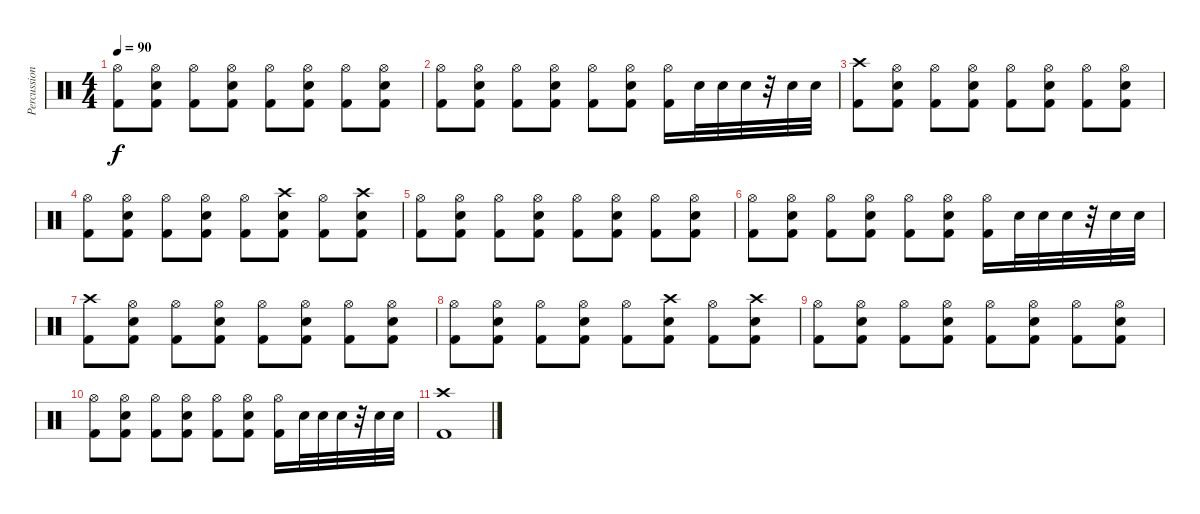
\track ("Percussion" "Percussion") {instrument percussion}
\staff {score}
\articulation defaults
\ts (4 4)
\tempo 90
\clef neutral
\ks c
("Hi-Hat (open)" "Kick (hit) 2").8{dy f} ("Hi-Hat (open)" "Electric Snare (hit)" "Kick (hit) 2").8 ("Hi-Hat (open)" "Kick (hit) 2").8 ("Hi-Hat (open)" "Electric Snare (hit)" "Kick (hit) 2").8 ("Hi-Hat (open)" "Kick (hit) 2").8 ("Hi-Hat (open)" "Electric Snare (hit)" "Kick (hit) 2").8 ("Hi-Hat (open)" "Kick (hit) 2").8 ("Hi-Hat (open)" "Electric Snare (hit)" "Kick (hit) 2").8 |
("Hi-Hat (open)" "Kick (hit) 2").8 ("Hi-Hat (open)" "Electric Snare (hit)" "Kick (hit) 2").8 ("Hi-Hat (open)" "Kick (hit) 2").8 ("Hi-Hat (open)" "Electric Snare (hit)" "Kick (hit) 2").8 ("Hi-Hat (open)" "Kick (hit) 2").8 ("Hi-Hat (open)" "Electric Snare (hit)" "Kick (hit) 2").8 ("Hi-Hat (open)" "Kick (hit) 2").16 "Electric Snare (hit)".32 "Electric Snare (hit)".32 "Electric Snare (hit)".32 r.32 "Electric Snare (hit)".32 "Electric Snare (hit)".32 |
("Crash high (hit)" "Kick (hit) 2").8 ("Hi-Hat (open)" "Electric Snare (hit)" "Kick (hit) 2").8 ("Hi-Hat (open)" "Kick (hit) 2").8 ("Hi-Hat (open)" "Electric Snare (hit)" "Kick (hit) 2").8 ("Hi-Hat (open)" "Kick (hit) 2").8 ("Hi-Hat (open)" "Electric Snare (hit)" "Kick (hit) 2").8 ("Hi-Hat (open)" "Kick (hit) 2").8 ("Hi-Hat (open)" "Electric Snare (hit)" "Kick (hit) 2").8 |
("Hi-Hat (open)" "Kick (hit) 2").8 ("Hi-Hat (open)" "Electric Snare (hit)" "Kick (hit) 2").8 ("Hi-Hat (open)" "Kick (hit) 2").8 ("Hi-Hat (open)" "Electric Snare (hit)" "Kick (hit) 2").8 ("Hi-Hat (open)" "Kick (hit) 2").8 ("Crash high (hit)" "Electric Snare (hit)" "Kick (hit) 2").8 ("Hi-Hat (open)" "Kick (hit) 2").8 ("Crash high (hit)" "Electric Snare (hit)" "Kick (hit) 2").8 |
("Hi-Hat (open)" "Kick (hit) 2").8 ("Hi-Hat (open)" "Electric Snare (hit)" "Kick (hit) 2").8 ("Hi-Hat (open)" "Kick (hit) 2").8 ("Hi-Hat (open)" "Electric Snare (hit)" "Kick (hit) 2").8 ("Hi-Hat (open)" "Kick (hit) 2").8 ("Hi-Hat (open)" "Electric Snare (hit)" "Kick (hit) 2").8 ("Hi-Hat (open)" "Kick (hit) 2").8 ("Hi-Hat (open)" "Electric Snare (hit)" "Kick (hit) 2").8 |
("Hi-Hat (open)" "Kick (hit) 2").8 ("Hi-Hat (open)" "Electric Snare (hit)" "Kick (hit) 2").8 ("Hi-Hat (open)" "Kick (hit) 2").8 ("Hi-Hat (open)" "Electric Snare (hit)" "Kick (hit) 2").8 ("Hi-Hat (open)" "Kick (hit) 2").8 ("Hi-Hat (open)" "Electric Snare (hit)" "Kick (hit) 2").8 ("Hi-Hat (open)" "Kick (hit) 2").16 "Electric Snare (hit)".32 "Electric Snare (hit)".32 "Electric Snare (hit)".32 r.32 "Electric Snare (hit)".32 "Electric Snare (hit)".32 |
("Crash high (hit)" "Kick (hit) 2").8 ("Hi-Hat (open)" "Electric Snare (hit)" "Kick (hit) 2").8 ("Hi-Hat (open)" "Kick (hit) 2").8 ("Hi-Hat (open)" "Electric Snare (hit)" "Kick (hit) 2").8 ("Hi-Hat (open)" "Kick (hit) 2").8 ("Hi-Hat (open)" "Electric Snare (hit)" "Kick (hit) 2").8 ("Hi-Hat (open)" "Kick (hit) 2").8 ("Hi-Hat (open)" "Electric Snare (hit)" "Kick (hit) 2").8 |
("Hi-Hat (open)" "Kick (hit) 2").8 ("Hi-Hat (open)" "Electric Snare (hit)" "Kick (hit) 2").8 ("Hi-Hat (open)" "Kick (hit) 2").8 ("Hi-Hat (open)" "Electric Snare (hit)" "Kick (hit) 2").8 ("Hi-Hat (open)" "Kick (hit) 2").8 ("Crash high (hit)" "Electric Snare (hit)" "Kick (hit) 2").8 ("Hi-Hat (open)" "Kick (hit) 2").8 ("Crash high (hit)" "Electric Snare (hit)" "Kick (hit) 2").8 |
("Hi-Hat (open)" "Kick (hit) 2").8 ("Hi-Hat (open)" "Electric Snare (hit)" "Kick (hit) 2").8 ("Hi-Hat (open)" "Kick (hit) 2").8 ("Hi-Hat (open)" "Electric Snare (hit)" "Kick (hit) 2").8 ("Hi-Hat (open)" "Kick (hit) 2").8 ("Hi-Hat (open)" "Electric Snare (hit)" "Kick (hit) 2").8 ("Hi-Hat (open)" "Kick (hit) 2").8 ("Hi-Hat (open)" "Electric Snare (hit)" "Kick (hit) 2").8 |
("Hi-Hat (open)" "Kick (hit) 2").8 ("Hi-Hat (open)" "Electric Snare (hit)" "Kick (hit) 2").8 ("Hi-Hat (open)" "Kick (hit) 2").8 ("Hi-Hat (open)" "Electric Snare (hit)" "Kick (hit) 2").8 ("Hi-Hat (open)" "Kick (hit) 2").8 ("Hi-Hat (open)" "Electric Snare (hit)" "Kick (hit) 2").8 ("Hi-Hat (open)" "Kick (hit) 2").16 "Electric Snare (hit)".32 "Electric Snare (hit)".32 "Electric Snare (hit)".32 r.32 "Electric Snare (hit)".32 "Electric Snare (hit)".32 |
("Crash high (hit)" "Kick (hit) 2").1
